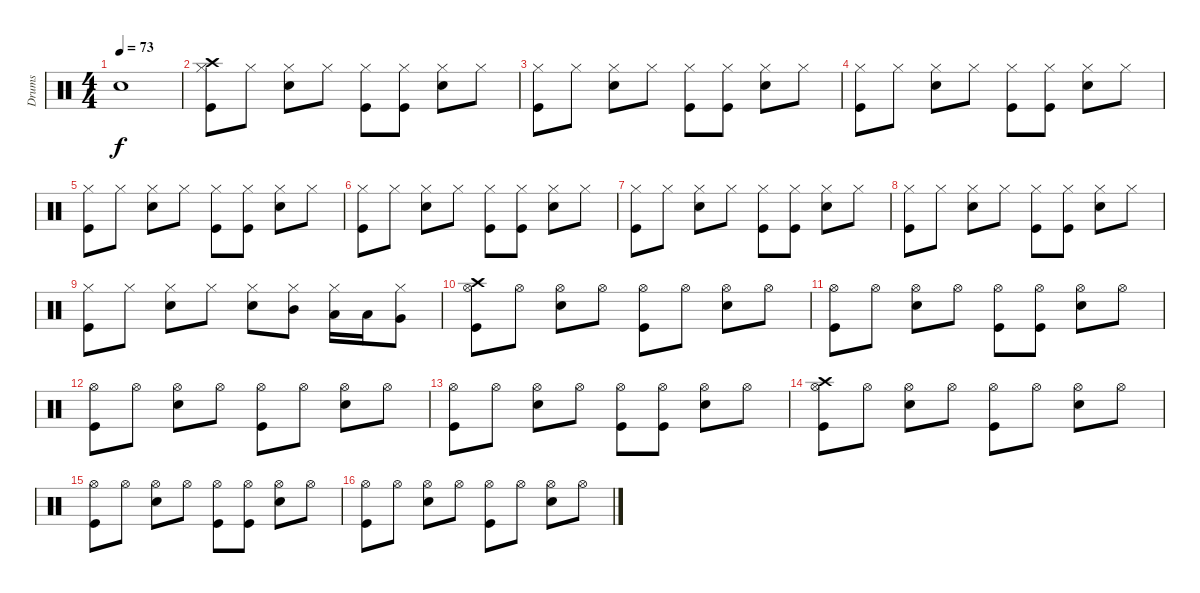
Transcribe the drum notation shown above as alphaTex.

\track ("Drums" "Drums") {instrument percussion}
\staff {score}
\articulation defaults
\ts (4 4)
\tempo 73
\clef neutral
\ks c "Snare (hit)"{t}.1{dy f}
|
("Kick (hit)" "Hi-Hat (closed)" "Crash high (hit)").8{volume 10} "Hi-Hat (closed)".8 ("Snare (hit) 2" "Hi-Hat (closed)").8 "Hi-Hat (closed)".8 ("Kick (hit)" "Hi-Hat (closed)").8 ("Kick (hit)" "Hi-Hat (closed)").8 ("Snare (hit) 2" "Hi-Hat (closed)").8 "Hi-Hat (closed)".8 |
("Kick (hit)" "Hi-Hat (closed)").8 "Hi-Hat (closed)".8 ("Snare (hit) 2" "Hi-Hat (closed)").8 "Hi-Hat (closed)".8 ("Kick (hit)" "Hi-Hat (closed)").8 ("Kick (hit)" "Hi-Hat (closed)").8 ("Snare (hit) 2" "Hi-Hat (closed)").8 "Hi-Hat (closed)".8 |
("Kick (hit)" "Hi-Hat (closed)").8 "Hi-Hat (closed)".8 ("Snare (hit) 2" "Hi-Hat (closed)").8 "Hi-Hat (closed)".8 ("Kick (hit)" "Hi-Hat (closed)").8 ("Kick (hit)" "Hi-Hat (closed)").8 ("Snare (hit) 2" "Hi-Hat (closed)").8 "Hi-Hat (closed)".8 |
("Kick (hit)" "Hi-Hat (closed)").8 "Hi-Hat (closed)".8 ("Snare (hit) 2" "Hi-Hat (closed)").8 "Hi-Hat (closed)".8 ("Kick (hit)" "Hi-Hat (closed)").8 ("Kick (hit)" "Hi-Hat (closed)").8 ("Snare (hit) 2" "Hi-Hat (closed)").8 "Hi-Hat (closed)".8 |
("Kick (hit)" "Hi-Hat (closed)").8 "Hi-Hat (closed)".8 ("Snare (hit) 2" "Hi-Hat (closed)").8 "Hi-Hat (closed)".8 ("Kick (hit)" "Hi-Hat (closed)").8 ("Kick (hit)" "Hi-Hat (closed)").8 ("Snare (hit) 2" "Hi-Hat (closed)").8 "Hi-Hat (closed)".8 |
("Kick (hit)" "Hi-Hat (closed)").8 "Hi-Hat (closed)".8 ("Snare (hit) 2" "Hi-Hat (closed)").8 "Hi-Hat (closed)".8 ("Kick (hit)" "Hi-Hat (closed)").8 ("Kick (hit)" "Hi-Hat (closed)").8 ("Snare (hit) 2" "Hi-Hat (closed)").8 "Hi-Hat (closed)".8 |
("Kick (hit)" "Hi-Hat (closed)").8 "Hi-Hat (closed)".8 ("Snare (hit) 2" "Hi-Hat (closed)").8 "Hi-Hat (closed)".8 ("Kick (hit)" "Hi-Hat (closed)").8 ("Kick (hit)" "Hi-Hat (closed)").8 ("Snare (hit) 2" "Hi-Hat (closed)").8 "Hi-Hat (closed)".8 |
("Kick (hit)" "Hi-Hat (closed)").8 "Hi-Hat (closed)".8 ("Snare (hit) 2" "Hi-Hat (closed)").8 "Hi-Hat (closed)".8 ("Snare (hit) 2" "Hi-Hat (closed)").8 ("Hi-Hat (closed)" "Mid Tom (hit)").8 ("Hi-Hat (closed)" "Low Tom (hit)").16 "Low Tom (hit)".16 ("Hi-Hat (closed)" "Very Low Tom (hit)").8 |
("Kick (hit)" "Hi-Hat (open)" "Crash high (hit)").8 "Hi-Hat (open)".8 ("Snare (hit) 2" "Hi-Hat (open)").8 "Hi-Hat (open)".8 ("Kick (hit)" "Hi-Hat (open)").8 "Hi-Hat (open)".8 ("Snare (hit) 2" "Hi-Hat (open)").8 "Hi-Hat (open)".8 |
("Kick (hit)" "Hi-Hat (open)").8 "Hi-Hat (open)".8 ("Snare (hit) 2" "Hi-Hat (open)").8 "Hi-Hat (open)".8 ("Kick (hit)" "Hi-Hat (open)").8 ("Kick (hit)" "Hi-Hat (open)").8 ("Snare (hit) 2" "Hi-Hat (open)").8 "Hi-Hat (open)".8 |
("Kick (hit)" "Hi-Hat (open)").8 "Hi-Hat (open)".8 ("Snare (hit) 2" "Hi-Hat (open)").8 "Hi-Hat (open)".8 ("Kick (hit)" "Hi-Hat (open)").8 "Hi-Hat (open)".8 ("Snare (hit) 2" "Hi-Hat (open)").8 "Hi-Hat (open)".8 |
("Kick (hit)" "Hi-Hat (open)").8 "Hi-Hat (open)".8 ("Snare (hit) 2" "Hi-Hat (open)").8 "Hi-Hat (open)".8 ("Kick (hit)" "Hi-Hat (open)").8 ("Kick (hit)" "Hi-Hat (open)").8 ("Snare (hit) 2" "Hi-Hat (open)").8 "Hi-Hat (open)".8 |
("Kick (hit)" "Hi-Hat (open)" "Crash high (hit)").8 "Hi-Hat (open)".8 ("Snare (hit) 2" "Hi-Hat (open)").8 "Hi-Hat (open)".8 ("Kick (hit)" "Hi-Hat (open)").8 "Hi-Hat (open)".8 ("Snare (hit) 2" "Hi-Hat (open)").8 "Hi-Hat (open)".8 |
("Kick (hit)" "Hi-Hat (open)").8 "Hi-Hat (open)".8 ("Snare (hit) 2" "Hi-Hat (open)").8 "Hi-Hat (open)".8 ("Kick (hit)" "Hi-Hat (open)").8 ("Kick (hit)" "Hi-Hat (open)").8 ("Snare (hit) 2" "Hi-Hat (open)").8 "Hi-Hat (open)".8 |
("Kick (hit)" "Hi-Hat (open)").8 "Hi-Hat (open)".8 ("Snare (hit) 2" "Hi-Hat (open)").8 "Hi-Hat (open)".8 ("Kick (hit)" "Hi-Hat (open)").8 "Hi-Hat (open)".8 ("Snare (hit) 2" "Hi-Hat (open)").8 "Hi-Hat (open)".8
